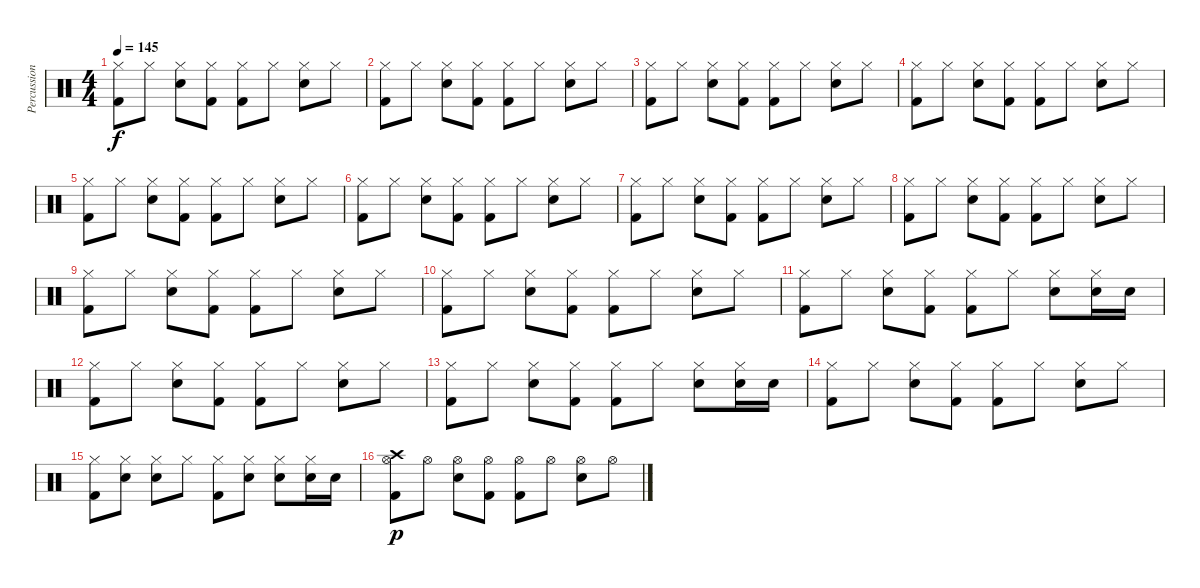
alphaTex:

\track ("Percussion" "Percussion") {instrument percussion}
\staff {score}
\articulation defaults
\ts (4 4)
\tempo 145
\clef neutral
\ks c
("Hi-Hat (closed)" "Kick (hit) 2").8{dy f} "Hi-Hat (closed)".8 ("Hi-Hat (closed)" "Electric Snare (hit)").8 ("Hi-Hat (closed)" "Kick (hit) 2").8 ("Hi-Hat (closed)" "Kick (hit) 2").8 "Hi-Hat (closed)".8 ("Hi-Hat (closed)" "Electric Snare (hit)").8 "Hi-Hat (closed)".8 |
("Hi-Hat (closed)" "Kick (hit) 2").8 "Hi-Hat (closed)".8 ("Hi-Hat (closed)" "Electric Snare (hit)").8 ("Hi-Hat (closed)" "Kick (hit) 2").8 ("Hi-Hat (closed)" "Kick (hit) 2").8 "Hi-Hat (closed)".8 ("Hi-Hat (closed)" "Electric Snare (hit)").8 "Hi-Hat (closed)".8 |
("Hi-Hat (closed)" "Kick (hit) 2").8 "Hi-Hat (closed)".8 ("Hi-Hat (closed)" "Electric Snare (hit)").8 ("Hi-Hat (closed)" "Kick (hit) 2").8 ("Hi-Hat (closed)" "Kick (hit) 2").8 "Hi-Hat (closed)".8 ("Hi-Hat (closed)" "Electric Snare (hit)").8 "Hi-Hat (closed)".8 |
("Hi-Hat (closed)" "Kick (hit) 2").8 "Hi-Hat (closed)".8 ("Hi-Hat (closed)" "Electric Snare (hit)").8 ("Hi-Hat (closed)" "Kick (hit) 2").8 ("Hi-Hat (closed)" "Kick (hit) 2").8 "Hi-Hat (closed)".8 ("Hi-Hat (closed)" "Electric Snare (hit)").8 "Hi-Hat (closed)".8 |
("Hi-Hat (closed)" "Kick (hit) 2").8 "Hi-Hat (closed)".8 ("Hi-Hat (closed)" "Electric Snare (hit)").8 ("Hi-Hat (closed)" "Kick (hit) 2").8 ("Hi-Hat (closed)" "Kick (hit) 2").8 "Hi-Hat (closed)".8 ("Hi-Hat (closed)" "Electric Snare (hit)").8 "Hi-Hat (closed)".8 |
("Hi-Hat (closed)" "Kick (hit) 2").8 "Hi-Hat (closed)".8 ("Hi-Hat (closed)" "Electric Snare (hit)").8 ("Hi-Hat (closed)" "Kick (hit) 2").8 ("Hi-Hat (closed)" "Kick (hit) 2").8 "Hi-Hat (closed)".8 ("Hi-Hat (closed)" "Electric Snare (hit)").8 "Hi-Hat (closed)".8 |
("Hi-Hat (closed)" "Kick (hit) 2").8 "Hi-Hat (closed)".8 ("Hi-Hat (closed)" "Electric Snare (hit)").8 ("Hi-Hat (closed)" "Kick (hit) 2").8 ("Hi-Hat (closed)" "Kick (hit) 2").8 "Hi-Hat (closed)".8 ("Hi-Hat (closed)" "Electric Snare (hit)").8 "Hi-Hat (closed)".8 |
("Hi-Hat (closed)" "Kick (hit) 2").8 "Hi-Hat (closed)".8 ("Hi-Hat (closed)" "Electric Snare (hit)").8 ("Hi-Hat (closed)" "Kick (hit) 2").8 ("Hi-Hat (closed)" "Kick (hit) 2").8 "Hi-Hat (closed)".8 ("Hi-Hat (closed)" "Electric Snare (hit)").8 "Hi-Hat (closed)".8 |
("Hi-Hat (closed)" "Kick (hit) 2").8 "Hi-Hat (closed)".8 ("Hi-Hat (closed)" "Electric Snare (hit)").8 ("Hi-Hat (closed)" "Kick (hit) 2").8 ("Hi-Hat (closed)" "Kick (hit) 2").8 "Hi-Hat (closed)".8 ("Hi-Hat (closed)" "Electric Snare (hit)").8 "Hi-Hat (closed)".8 |
("Hi-Hat (closed)" "Kick (hit) 2").8 "Hi-Hat (closed)".8 ("Hi-Hat (closed)" "Electric Snare (hit)").8 ("Hi-Hat (closed)" "Kick (hit) 2").8 ("Hi-Hat (closed)" "Kick (hit) 2").8 "Hi-Hat (closed)".8 ("Hi-Hat (closed)" "Electric Snare (hit)").8 "Hi-Hat (closed)".8 |
("Hi-Hat (closed)" "Kick (hit) 2").8 "Hi-Hat (closed)".8 ("Hi-Hat (closed)" "Electric Snare (hit)").8 ("Hi-Hat (closed)" "Kick (hit) 2").8 ("Hi-Hat (closed)" "Kick (hit) 2").8 "Hi-Hat (closed)".8 ("Hi-Hat (closed)" "Electric Snare (hit)").8 ("Hi-Hat (closed)" "Electric Snare (hit)").16 "Electric Snare (hit)".16 |
("Hi-Hat (closed)" "Kick (hit) 2").8 "Hi-Hat (closed)".8 ("Hi-Hat (closed)" "Electric Snare (hit)").8 ("Hi-Hat (closed)" "Kick (hit) 2").8 ("Hi-Hat (closed)" "Kick (hit) 2").8 "Hi-Hat (closed)".8 ("Hi-Hat (closed)" "Electric Snare (hit)").8 "Hi-Hat (closed)".8 |
("Hi-Hat (closed)" "Kick (hit) 2").8 "Hi-Hat (closed)".8 ("Hi-Hat (closed)" "Electric Snare (hit)").8 ("Hi-Hat (closed)" "Kick (hit) 2").8 ("Hi-Hat (closed)" "Kick (hit) 2").8 "Hi-Hat (closed)".8 ("Hi-Hat (closed)" "Electric Snare (hit)").8 ("Hi-Hat (closed)" "Electric Snare (hit)").16 "Electric Snare (hit)".16 |
("Hi-Hat (closed)" "Kick (hit) 2").8 "Hi-Hat (closed)".8 ("Hi-Hat (closed)" "Electric Snare (hit)").8 ("Hi-Hat (closed)" "Kick (hit) 2").8 ("Hi-Hat (closed)" "Kick (hit) 2").8 "Hi-Hat (closed)".8 ("Hi-Hat (closed)" "Electric Snare (hit)").8 "Hi-Hat (closed)".8 |
("Hi-Hat (closed)" "Kick (hit) 2").8 ("Hi-Hat (closed)" "Electric Snare (hit)").8 ("Hi-Hat (closed)" "Electric Snare (hit)").8 "Hi-Hat (closed)".8 ("Hi-Hat (closed)" "Kick (hit) 2").8 ("Hi-Hat (closed)" "Electric Snare (hit)").8 ("Hi-Hat (closed)" "Electric Snare (hit)").8 ("Hi-Hat (closed)" "Electric Snare (hit)").16 "Electric Snare (hit)".16 |
("Crash high (hit)" "Hi-Hat (open)" "Kick (hit) 2").8{dy p} "Hi-Hat (open)".8 ("Hi-Hat (open)" "Electric Snare (hit)").8 ("Hi-Hat (open)" "Kick (hit) 2").8 ("Hi-Hat (open)" "Kick (hit) 2").8 "Hi-Hat (open)".8 ("Hi-Hat (open)" "Electric Snare (hit)").8 "Hi-Hat (open)".8
